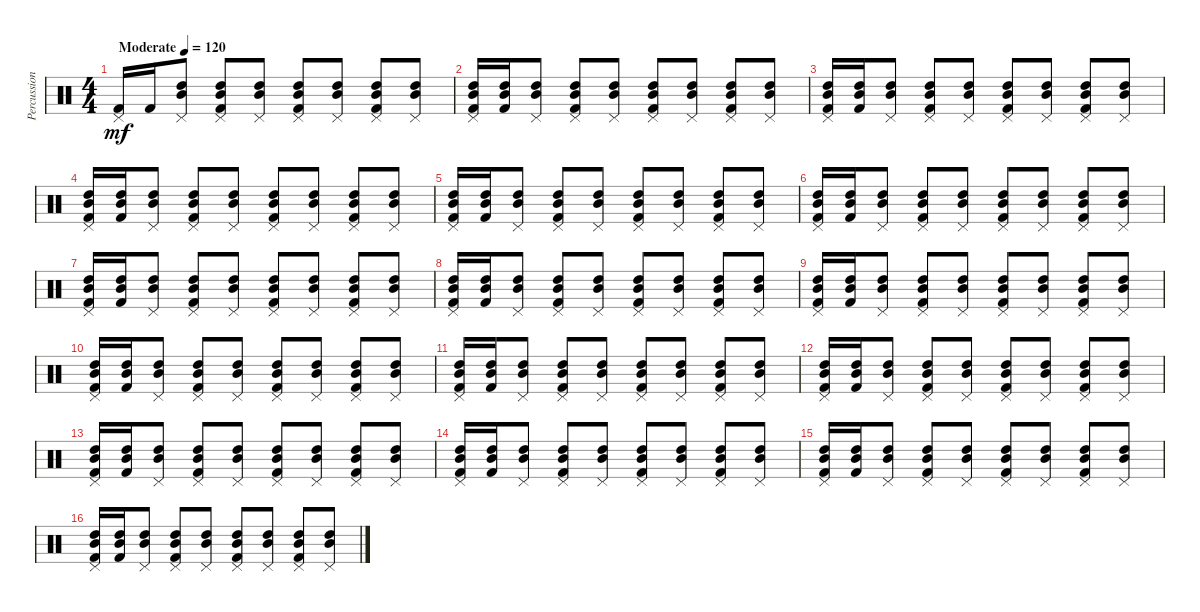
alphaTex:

\track ("Percussion" "Percussion") {instrument percussion}
\staff {score}
\articulation defaults
\ts (4 4)
\tempo (120 "Moderate")
\clef neutral
\ks c
("Pedal Hi-Hat (hit)" "Kick (hit) 2").16{dy mf} "Kick (hit) 2".16 ("Pedal Hi-Hat (hit)" "High Tom (hit)" "Mid Tom (hit)").8 ("Pedal Hi-Hat (hit)" "High Tom (hit)" "Mid Tom (hit)" "Kick (hit) 2").8 ("Pedal Hi-Hat (hit)" "High Tom (hit)" "Mid Tom (hit)").8 ("Pedal Hi-Hat (hit)" "High Tom (hit)" "Mid Tom (hit)" "Kick (hit) 2").8 ("Pedal Hi-Hat (hit)" "High Tom (hit)" "Mid Tom (hit)").8 ("Pedal Hi-Hat (hit)" "High Tom (hit)" "Mid Tom (hit)" "Kick (hit) 2").8 ("Pedal Hi-Hat (hit)" "High Tom (hit)" "Mid Tom (hit)").8 |
("Pedal Hi-Hat (hit)" "High Tom (hit)" "Mid Tom (hit)" "Kick (hit) 2").16 ("High Tom (hit)" "Mid Tom (hit)" "Kick (hit) 2").16 ("Pedal Hi-Hat (hit)" "High Tom (hit)" "Mid Tom (hit)").8 ("Pedal Hi-Hat (hit)" "High Tom (hit)" "Mid Tom (hit)" "Kick (hit) 2").8 ("Pedal Hi-Hat (hit)" "High Tom (hit)" "Mid Tom (hit)").8 ("Pedal Hi-Hat (hit)" "High Tom (hit)" "Mid Tom (hit)" "Kick (hit) 2").8 ("Pedal Hi-Hat (hit)" "High Tom (hit)" "Mid Tom (hit)").8 ("Pedal Hi-Hat (hit)" "High Tom (hit)" "Mid Tom (hit)" "Kick (hit) 2").8 ("Pedal Hi-Hat (hit)" "High Tom (hit)" "Mid Tom (hit)").8 |
("Pedal Hi-Hat (hit)" "High Tom (hit)" "Mid Tom (hit)" "Kick (hit) 2").16 ("High Tom (hit)" "Mid Tom (hit)" "Kick (hit) 2").16 ("Pedal Hi-Hat (hit)" "High Tom (hit)" "Mid Tom (hit)").8 ("Pedal Hi-Hat (hit)" "High Tom (hit)" "Mid Tom (hit)" "Kick (hit) 2").8 ("Pedal Hi-Hat (hit)" "High Tom (hit)" "Mid Tom (hit)").8 ("Pedal Hi-Hat (hit)" "High Tom (hit)" "Mid Tom (hit)" "Kick (hit) 2").8 ("Pedal Hi-Hat (hit)" "High Tom (hit)" "Mid Tom (hit)").8 ("Pedal Hi-Hat (hit)" "High Tom (hit)" "Mid Tom (hit)" "Kick (hit) 2").8 ("Pedal Hi-Hat (hit)" "High Tom (hit)" "Mid Tom (hit)").8 |
("Pedal Hi-Hat (hit)" "High Tom (hit)" "Mid Tom (hit)" "Kick (hit) 2").16 ("High Tom (hit)" "Mid Tom (hit)" "Kick (hit) 2").16 ("Pedal Hi-Hat (hit)" "High Tom (hit)" "Mid Tom (hit)").8 ("Pedal Hi-Hat (hit)" "High Tom (hit)" "Mid Tom (hit)" "Kick (hit) 2").8 ("Pedal Hi-Hat (hit)" "High Tom (hit)" "Mid Tom (hit)").8 ("Pedal Hi-Hat (hit)" "High Tom (hit)" "Mid Tom (hit)" "Kick (hit) 2").8 ("Pedal Hi-Hat (hit)" "High Tom (hit)" "Mid Tom (hit)").8 ("Pedal Hi-Hat (hit)" "High Tom (hit)" "Mid Tom (hit)" "Kick (hit) 2").8 ("Pedal Hi-Hat (hit)" "High Tom (hit)" "Mid Tom (hit)").8 |
("Pedal Hi-Hat (hit)" "High Tom (hit)" "Mid Tom (hit)" "Kick (hit) 2").16 ("High Tom (hit)" "Mid Tom (hit)" "Kick (hit) 2").16 ("Pedal Hi-Hat (hit)" "High Tom (hit)" "Mid Tom (hit)").8 ("Pedal Hi-Hat (hit)" "High Tom (hit)" "Mid Tom (hit)" "Kick (hit) 2").8 ("Pedal Hi-Hat (hit)" "High Tom (hit)" "Mid Tom (hit)").8 ("Pedal Hi-Hat (hit)" "High Tom (hit)" "Mid Tom (hit)" "Kick (hit) 2").8 ("Pedal Hi-Hat (hit)" "High Tom (hit)" "Mid Tom (hit)").8 ("Pedal Hi-Hat (hit)" "High Tom (hit)" "Mid Tom (hit)" "Kick (hit) 2").8 ("Pedal Hi-Hat (hit)" "High Tom (hit)" "Mid Tom (hit)").8 |
("Pedal Hi-Hat (hit)" "High Tom (hit)" "Mid Tom (hit)" "Kick (hit) 2").16 ("High Tom (hit)" "Mid Tom (hit)" "Kick (hit) 2").16 ("Pedal Hi-Hat (hit)" "High Tom (hit)" "Mid Tom (hit)").8 ("Pedal Hi-Hat (hit)" "High Tom (hit)" "Mid Tom (hit)" "Kick (hit) 2").8 ("Pedal Hi-Hat (hit)" "High Tom (hit)" "Mid Tom (hit)").8 ("Pedal Hi-Hat (hit)" "High Tom (hit)" "Mid Tom (hit)" "Kick (hit) 2").8 ("Pedal Hi-Hat (hit)" "High Tom (hit)" "Mid Tom (hit)").8 ("Pedal Hi-Hat (hit)" "High Tom (hit)" "Mid Tom (hit)" "Kick (hit) 2").8 ("Pedal Hi-Hat (hit)" "High Tom (hit)" "Mid Tom (hit)").8 |
("Pedal Hi-Hat (hit)" "High Tom (hit)" "Mid Tom (hit)" "Kick (hit) 2").16 ("High Tom (hit)" "Mid Tom (hit)" "Kick (hit) 2").16 ("Pedal Hi-Hat (hit)" "High Tom (hit)" "Mid Tom (hit)").8 ("Pedal Hi-Hat (hit)" "High Tom (hit)" "Mid Tom (hit)" "Kick (hit) 2").8 ("Pedal Hi-Hat (hit)" "High Tom (hit)" "Mid Tom (hit)").8 ("Pedal Hi-Hat (hit)" "High Tom (hit)" "Mid Tom (hit)" "Kick (hit) 2").8 ("Pedal Hi-Hat (hit)" "High Tom (hit)" "Mid Tom (hit)").8 ("Pedal Hi-Hat (hit)" "High Tom (hit)" "Mid Tom (hit)" "Kick (hit) 2").8 ("Pedal Hi-Hat (hit)" "High Tom (hit)" "Mid Tom (hit)").8 |
("Pedal Hi-Hat (hit)" "High Tom (hit)" "Mid Tom (hit)" "Kick (hit) 2").16 ("High Tom (hit)" "Mid Tom (hit)" "Kick (hit) 2").16 ("Pedal Hi-Hat (hit)" "High Tom (hit)" "Mid Tom (hit)").8 ("Pedal Hi-Hat (hit)" "High Tom (hit)" "Mid Tom (hit)" "Kick (hit) 2").8 ("Pedal Hi-Hat (hit)" "High Tom (hit)" "Mid Tom (hit)").8 ("Pedal Hi-Hat (hit)" "High Tom (hit)" "Mid Tom (hit)" "Kick (hit) 2").8 ("Pedal Hi-Hat (hit)" "High Tom (hit)" "Mid Tom (hit)").8 ("Pedal Hi-Hat (hit)" "High Tom (hit)" "Mid Tom (hit)" "Kick (hit) 2").8 ("Pedal Hi-Hat (hit)" "High Tom (hit)" "Mid Tom (hit)").8 |
("Pedal Hi-Hat (hit)" "High Tom (hit)" "Mid Tom (hit)" "Kick (hit) 2").16 ("High Tom (hit)" "Mid Tom (hit)" "Kick (hit) 2").16 ("Pedal Hi-Hat (hit)" "High Tom (hit)" "Mid Tom (hit)").8 ("Pedal Hi-Hat (hit)" "High Tom (hit)" "Mid Tom (hit)" "Kick (hit) 2").8 ("Pedal Hi-Hat (hit)" "High Tom (hit)" "Mid Tom (hit)").8 ("Pedal Hi-Hat (hit)" "High Tom (hit)" "Mid Tom (hit)" "Kick (hit) 2").8 ("Pedal Hi-Hat (hit)" "High Tom (hit)" "Mid Tom (hit)").8 ("Pedal Hi-Hat (hit)" "High Tom (hit)" "Mid Tom (hit)" "Kick (hit) 2").8 ("Pedal Hi-Hat (hit)" "High Tom (hit)" "Mid Tom (hit)").8 |
("Pedal Hi-Hat (hit)" "High Tom (hit)" "Mid Tom (hit)" "Kick (hit) 2").16 ("High Tom (hit)" "Mid Tom (hit)" "Kick (hit) 2").16 ("Pedal Hi-Hat (hit)" "High Tom (hit)" "Mid Tom (hit)").8 ("Pedal Hi-Hat (hit)" "High Tom (hit)" "Mid Tom (hit)" "Kick (hit) 2").8 ("Pedal Hi-Hat (hit)" "High Tom (hit)" "Mid Tom (hit)").8 ("Pedal Hi-Hat (hit)" "High Tom (hit)" "Mid Tom (hit)" "Kick (hit) 2").8 ("Pedal Hi-Hat (hit)" "High Tom (hit)" "Mid Tom (hit)").8 ("Pedal Hi-Hat (hit)" "High Tom (hit)" "Mid Tom (hit)" "Kick (hit) 2").8 ("Pedal Hi-Hat (hit)" "High Tom (hit)" "Mid Tom (hit)").8 |
("Pedal Hi-Hat (hit)" "High Tom (hit)" "Mid Tom (hit)" "Kick (hit) 2").16 ("High Tom (hit)" "Mid Tom (hit)" "Kick (hit) 2").16 ("Pedal Hi-Hat (hit)" "High Tom (hit)" "Mid Tom (hit)").8 ("Pedal Hi-Hat (hit)" "High Tom (hit)" "Mid Tom (hit)" "Kick (hit) 2").8 ("Pedal Hi-Hat (hit)" "High Tom (hit)" "Mid Tom (hit)").8 ("Pedal Hi-Hat (hit)" "High Tom (hit)" "Mid Tom (hit)" "Kick (hit) 2").8 ("Pedal Hi-Hat (hit)" "High Tom (hit)" "Mid Tom (hit)").8 ("Pedal Hi-Hat (hit)" "High Tom (hit)" "Mid Tom (hit)" "Kick (hit) 2").8 ("Pedal Hi-Hat (hit)" "High Tom (hit)" "Mid Tom (hit)").8 |
("Pedal Hi-Hat (hit)" "High Tom (hit)" "Mid Tom (hit)" "Kick (hit) 2").16 ("High Tom (hit)" "Mid Tom (hit)" "Kick (hit) 2").16 ("Pedal Hi-Hat (hit)" "High Tom (hit)" "Mid Tom (hit)").8 ("Pedal Hi-Hat (hit)" "High Tom (hit)" "Mid Tom (hit)" "Kick (hit) 2").8 ("Pedal Hi-Hat (hit)" "High Tom (hit)" "Mid Tom (hit)").8 ("Pedal Hi-Hat (hit)" "High Tom (hit)" "Mid Tom (hit)" "Kick (hit) 2").8 ("Pedal Hi-Hat (hit)" "High Tom (hit)" "Mid Tom (hit)").8 ("Pedal Hi-Hat (hit)" "High Tom (hit)" "Mid Tom (hit)" "Kick (hit) 2").8 ("Pedal Hi-Hat (hit)" "High Tom (hit)" "Mid Tom (hit)").8 |
("Pedal Hi-Hat (hit)" "High Tom (hit)" "Mid Tom (hit)" "Kick (hit) 2").16 ("High Tom (hit)" "Mid Tom (hit)" "Kick (hit) 2").16 ("Pedal Hi-Hat (hit)" "High Tom (hit)" "Mid Tom (hit)").8 ("Pedal Hi-Hat (hit)" "High Tom (hit)" "Mid Tom (hit)" "Kick (hit) 2").8 ("Pedal Hi-Hat (hit)" "High Tom (hit)" "Mid Tom (hit)").8 ("Pedal Hi-Hat (hit)" "High Tom (hit)" "Mid Tom (hit)" "Kick (hit) 2").8 ("Pedal Hi-Hat (hit)" "High Tom (hit)" "Mid Tom (hit)").8 ("Pedal Hi-Hat (hit)" "High Tom (hit)" "Mid Tom (hit)" "Kick (hit) 2").8 ("Pedal Hi-Hat (hit)" "High Tom (hit)" "Mid Tom (hit)").8 |
("Pedal Hi-Hat (hit)" "High Tom (hit)" "Mid Tom (hit)" "Kick (hit) 2").16 ("High Tom (hit)" "Mid Tom (hit)" "Kick (hit) 2").16 ("Pedal Hi-Hat (hit)" "High Tom (hit)" "Mid Tom (hit)").8 ("Pedal Hi-Hat (hit)" "High Tom (hit)" "Mid Tom (hit)" "Kick (hit) 2").8 ("Pedal Hi-Hat (hit)" "High Tom (hit)" "Mid Tom (hit)").8 ("Pedal Hi-Hat (hit)" "High Tom (hit)" "Mid Tom (hit)" "Kick (hit) 2").8 ("Pedal Hi-Hat (hit)" "High Tom (hit)" "Mid Tom (hit)").8 ("Pedal Hi-Hat (hit)" "High Tom (hit)" "Mid Tom (hit)" "Kick (hit) 2").8 ("Pedal Hi-Hat (hit)" "High Tom (hit)" "Mid Tom (hit)").8 |
("Pedal Hi-Hat (hit)" "High Tom (hit)" "Mid Tom (hit)" "Kick (hit) 2").16 ("High Tom (hit)" "Mid Tom (hit)" "Kick (hit) 2").16 ("Pedal Hi-Hat (hit)" "High Tom (hit)" "Mid Tom (hit)").8 ("Pedal Hi-Hat (hit)" "High Tom (hit)" "Mid Tom (hit)" "Kick (hit) 2").8 ("Pedal Hi-Hat (hit)" "High Tom (hit)" "Mid Tom (hit)").8 ("Pedal Hi-Hat (hit)" "High Tom (hit)" "Mid Tom (hit)" "Kick (hit) 2").8 ("Pedal Hi-Hat (hit)" "High Tom (hit)" "Mid Tom (hit)").8 ("Pedal Hi-Hat (hit)" "High Tom (hit)" "Mid Tom (hit)" "Kick (hit) 2").8 ("Pedal Hi-Hat (hit)" "High Tom (hit)" "Mid Tom (hit)").8 |
("Pedal Hi-Hat (hit)" "High Tom (hit)" "Mid Tom (hit)" "Kick (hit) 2").16 ("High Tom (hit)" "Mid Tom (hit)" "Kick (hit) 2").16 ("Pedal Hi-Hat (hit)" "High Tom (hit)" "Mid Tom (hit)").8 ("Pedal Hi-Hat (hit)" "High Tom (hit)" "Mid Tom (hit)" "Kick (hit) 2").8 ("Pedal Hi-Hat (hit)" "High Tom (hit)" "Mid Tom (hit)").8 ("Pedal Hi-Hat (hit)" "High Tom (hit)" "Mid Tom (hit)" "Kick (hit) 2").8 ("Pedal Hi-Hat (hit)" "High Tom (hit)" "Mid Tom (hit)").8 ("Pedal Hi-Hat (hit)" "High Tom (hit)" "Mid Tom (hit)" "Kick (hit) 2").8 ("Pedal Hi-Hat (hit)" "High Tom (hit)" "Mid Tom (hit)").8
